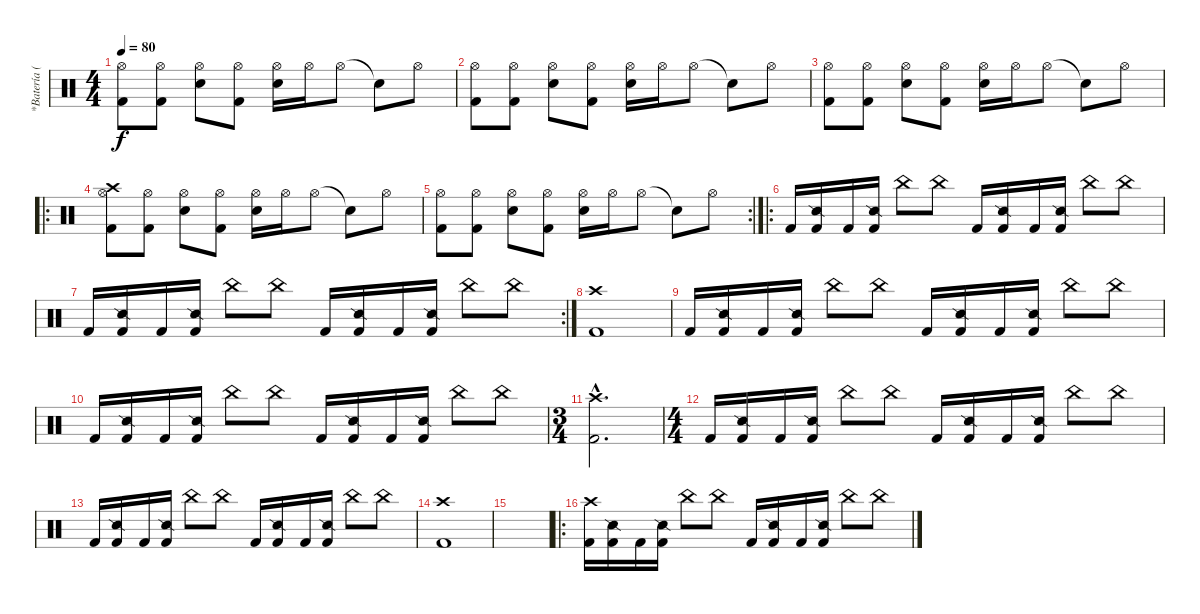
\track ("*Batería (Toño)" "*Batería (") {instrument percussion}
\staff {score}
\articulation defaults
\ts (4 4)
\tempo 80
\clef neutral
\ks c
("Hi-Hat (open)" "Kick (hit) 2").8{dy f} ("Hi-Hat (open)" "Kick (hit) 2").8 ("Hi-Hat (open)" "Electric Snare (hit)").8 ("Hi-Hat (open)" "Kick (hit) 2").8 ("Hi-Hat (open)" "Electric Snare (hit)").16 "Hi-Hat (open)".16 "Hi-Hat (open)".8 "Snare (hit)"{t}.8 "Hi-Hat (open)".8 |
("Hi-Hat (open)" "Kick (hit) 2").8 ("Hi-Hat (open)" "Kick (hit) 2").8 ("Hi-Hat (open)" "Electric Snare (hit)").8 ("Hi-Hat (open)" "Kick (hit) 2").8 ("Hi-Hat (open)" "Electric Snare (hit)").16 "Hi-Hat (open)".16 "Hi-Hat (open)".8 "Snare (hit)"{t}.8 "Hi-Hat (open)".8 |
("Hi-Hat (open)" "Kick (hit) 2").8 ("Hi-Hat (open)" "Kick (hit) 2").8 ("Hi-Hat (open)" "Electric Snare (hit)").8 ("Hi-Hat (open)" "Kick (hit) 2").8 ("Hi-Hat (open)" "Electric Snare (hit)").16 "Hi-Hat (open)".16 "Hi-Hat (open)".8 "Snare (hit)"{t}.8 "Hi-Hat (open)".8 |
\ro
("Crash high (hit)" "Hi-Hat (open)" "Kick (hit) 2").8 ("Hi-Hat (open)" "Kick (hit) 2").8 ("Hi-Hat (open)" "Electric Snare (hit)").8 ("Hi-Hat (open)" "Kick (hit) 2").8 ("Hi-Hat (open)" "Electric Snare (hit)").16 "Hi-Hat (open)".16 "Hi-Hat (open)".8 "Snare (hit)"{t}.8 "Hi-Hat (open)".8 |
\rc 2
("Hi-Hat (open)" "Kick (hit) 2").8 ("Hi-Hat (open)" "Kick (hit) 2").8 ("Hi-Hat (open)" "Electric Snare (hit)").8 ("Hi-Hat (open)" "Kick (hit) 2").8 ("Hi-Hat (open)" "Electric Snare (hit)").16 "Hi-Hat (open)".16 "Hi-Hat (open)".8 "Snare (hit)"{t}.8 "Hi-Hat (open)".8 |
\ro "Kick (hit) 2".16
("Snare (side stick) 2" "Kick (hit) 2").16 "Kick (hit) 2".16 ("Snare (side stick) 2" "Kick (hit) 2").16 "China (hit)".8 "China (hit)".8 "Kick (hit) 2".16 ("Snare (side stick) 2" "Kick (hit) 2").16 "Kick (hit) 2".16 ("Snare (side stick) 2" "Kick (hit) 2").16 "China (hit)".8 "China (hit)".8 |
\rc 2 "Kick (hit) 2".16
("Snare (side stick) 2" "Kick (hit) 2").16 "Kick (hit) 2".16 ("Snare (side stick) 2" "Kick (hit) 2").16 "China (hit)".8 "China (hit)".8 "Kick (hit) 2".16 ("Snare (side stick) 2" "Kick (hit) 2").16 "Kick (hit) 2".16 ("Snare (side stick) 2" "Kick (hit) 2").16 "China (hit)".8 "China (hit)".8 |
("Crash high (hit)" "Kick (hit) 2").1 |
"Kick (hit) 2".16 ("Snare (side stick) 2" "Kick (hit) 2").16 "Kick (hit) 2".16 ("Snare (side stick) 2" "Kick (hit) 2").16 "China (hit)".8 "China (hit)".8 "Kick (hit) 2".16 ("Snare (side stick) 2" "Kick (hit) 2").16 "Kick (hit) 2".16 ("Snare (side stick) 2" "Kick (hit) 2").16 "China (hit)".8 "China (hit)".8 |
"Kick (hit) 2".16 ("Snare (side stick) 2" "Kick (hit) 2").16 "Kick (hit) 2".16 ("Snare (side stick) 2" "Kick (hit) 2").16 "China (hit)".8 "China (hit)".8 "Kick (hit) 2".16 ("Snare (side stick) 2" "Kick (hit) 2").16 "Kick (hit) 2".16 ("Snare (side stick) 2" "Kick (hit) 2").16 "China (hit)".8 "China (hit)".8 |
\ts (3 4)
("Crash high (hit)"{hac} "Kick (hit) 2"{hac}).2{d} |
\ts (4 4)
"Kick (hit) 2".16 ("Snare (side stick) 2" "Kick (hit) 2").16 "Kick (hit) 2".16 ("Snare (side stick) 2" "Kick (hit) 2").16 "China (hit)".8 "China (hit)".8 "Kick (hit) 2".16 ("Snare (side stick) 2" "Kick (hit) 2").16 "Kick (hit) 2".16 ("Snare (side stick) 2" "Kick (hit) 2").16 "China (hit)".8 "China (hit)".8 |
"Kick (hit) 2".16 ("Snare (side stick) 2" "Kick (hit) 2").16 "Kick (hit) 2".16 ("Snare (side stick) 2" "Kick (hit) 2").16 "China (hit)".8 "China (hit)".8 "Kick (hit) 2".16 ("Snare (side stick) 2" "Kick (hit) 2").16 "Kick (hit) 2".16 ("Snare (side stick) 2" "Kick (hit) 2").16 "China (hit)".8 "China (hit)".8 |
("Crash high (hit)" "Kick (hit) 2").1 |
|
\ro
("Crash high (hit)" "Kick (hit) 2").16 ("Snare (side stick) 2" "Kick (hit) 2").16 "Kick (hit) 2".16 ("Snare (side stick) 2" "Kick (hit) 2").16 "China (hit)".8 "China (hit)".8 "Kick (hit) 2".16 ("Snare (side stick) 2" "Kick (hit) 2").16 "Kick (hit) 2".16 ("Snare (side stick) 2" "Kick (hit) 2").16 "China (hit)".8 "China (hit)".8
